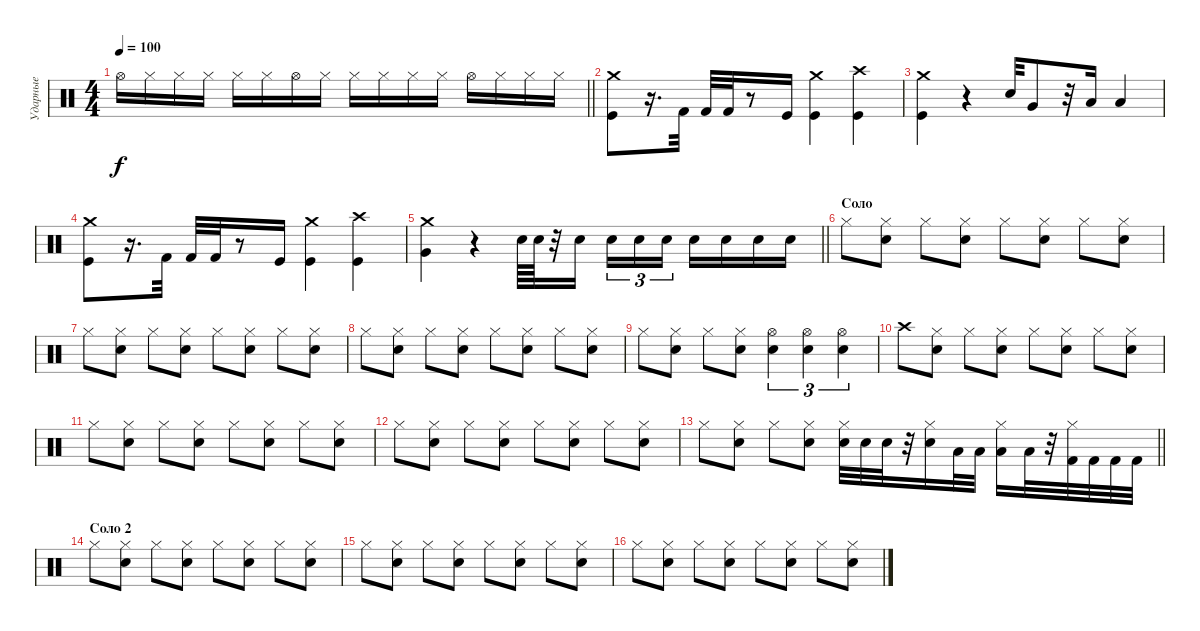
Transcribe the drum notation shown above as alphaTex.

\track ("Ударные" "Ударные") {instrument percussion}
\staff {score}
\articulation defaults
\ts (4 4)
\tempo 100
\clef neutral
\barLineRight lightlight
\ks c "Hi-Hat (open)".16{dy f} "Hi-Hat (closed)".16 "Hi-Hat (closed)".16 "Hi-Hat (closed)".16 "Hi-Hat (closed)".16 "Hi-Hat (closed)".16 "Hi-Hat (open)".16 "Hi-Hat (closed)".16 "Hi-Hat (closed)".16 "Hi-Hat (closed)".16 "Hi-Hat (closed)".16 "Hi-Hat (closed)".16 "Hi-Hat (open)".16 "Hi-Hat (closed)".16 "Hi-Hat (closed)".16 "Hi-Hat (closed)".16
|
("Kick (hit)" "Crash medium (hit)").8 r.16{d} "Kick (hit) 2".32 "Kick (hit) 2".32 "Kick (hit) 2".32 r.8 "Kick (hit)".16 ("Kick (hit)" "Crash medium (hit)").4 ("Kick (hit)" "Crash high (hit)").4 |
("Kick (hit)" "Crash medium (hit)").4 r.4 "Snare (hit) 2".32 "Very Low Tom (hit)".8 r.32 "Low Tom (hit)".16 "Low Floor Tom (hit)".4 |
("Kick (hit)" "Crash medium (hit)").8 r.16{d} "Kick (hit) 2".32 "Kick (hit) 2".32 "Kick (hit) 2".32 r.8 "Kick (hit)".16 ("Kick (hit)" "Crash medium (hit)").4 ("Kick (hit)" "Crash high (hit)").4 |
\barLineRight lightlight
("Crash medium (hit)" "Very Low Tom (hit)").4 r.4 "Electric Snare (hit)".64 "Electric Snare (hit)".64 r.32 "Electric Snare (hit)".16{beam splitsecondary} "Electric Snare (hit)".16{tu (3 2)} "Electric Snare (hit)".16{tu (3 2)} "Electric Snare (hit)".16{tu (3 2)} "Electric Snare (hit)".16 "Electric Snare (hit)".16 "Electric Snare (hit)".16 "Electric Snare (hit)".16 |
\section ("" "Соло")
"Hi-Hat (closed)".8 ("Hi-Hat (closed)" "Snare (hit) 2").8 "Hi-Hat (closed)".8 ("Hi-Hat (closed)" "Snare (hit) 2").8 "Hi-Hat (closed)".8 ("Hi-Hat (closed)" "Snare (hit) 2").8 "Hi-Hat (closed)".8 ("Hi-Hat (closed)" "Snare (hit) 2").8 |
"Hi-Hat (closed)".8 ("Hi-Hat (closed)" "Snare (hit) 2").8 "Hi-Hat (closed)".8 ("Hi-Hat (closed)" "Snare (hit) 2").8 "Hi-Hat (closed)".8 ("Hi-Hat (closed)" "Snare (hit) 2").8 "Hi-Hat (closed)".8 ("Hi-Hat (closed)" "Snare (hit) 2").8 |
"Hi-Hat (closed)".8 ("Hi-Hat (closed)" "Snare (hit) 2").8 "Hi-Hat (closed)".8 ("Hi-Hat (closed)" "Snare (hit) 2").8 "Hi-Hat (closed)".8 ("Hi-Hat (closed)" "Snare (hit) 2").8 "Hi-Hat (closed)".8 ("Hi-Hat (closed)" "Snare (hit) 2").8 |
"Hi-Hat (closed)".8 ("Hi-Hat (closed)" "Snare (hit) 2").8 "Hi-Hat (closed)".8 ("Hi-Hat (closed)" "Snare (hit) 2").8 ("Hi-Hat (open)" "Electric Snare (hit)").4{tu (3 2)} ("Hi-Hat (open)" "Electric Snare (hit)").4{tu (3 2)} ("Hi-Hat (open)" "Electric Snare (hit)").4{tu (3 2)} |
"Crash high (hit)".8 ("Hi-Hat (closed)" "Snare (hit) 2").8 "Hi-Hat (closed)".8 ("Hi-Hat (closed)" "Snare (hit) 2").8 "Hi-Hat (closed)".8 ("Hi-Hat (closed)" "Snare (hit) 2").8 "Hi-Hat (closed)".8 ("Hi-Hat (closed)" "Snare (hit) 2").8 |
"Hi-Hat (closed)".8 ("Hi-Hat (closed)" "Snare (hit) 2").8 "Hi-Hat (closed)".8 ("Hi-Hat (closed)" "Snare (hit) 2").8 "Hi-Hat (closed)".8 ("Hi-Hat (closed)" "Snare (hit) 2").8 "Hi-Hat (closed)".8 ("Hi-Hat (closed)" "Snare (hit) 2").8 |
"Hi-Hat (closed)".8 ("Hi-Hat (closed)" "Snare (hit) 2").8 "Hi-Hat (closed)".8 ("Hi-Hat (closed)" "Snare (hit) 2").8 "Hi-Hat (closed)".8 ("Hi-Hat (closed)" "Snare (hit) 2").8 "Hi-Hat (closed)".8 ("Hi-Hat (closed)" "Snare (hit) 2").8 |
\barLineRight lightlight "Hi-Hat (closed)".8
("Hi-Hat (closed)" "Snare (hit) 2").8 "Hi-Hat (closed)".8 ("Hi-Hat (closed)" "Snare (hit) 2").8 ("Hi-Hat (closed)" "Snare (hit) 2").32 "Snare (hit) 2".32 "Snare (hit) 2".32 r.32 ("Hi-Hat (closed)" "Snare (hit) 2").16 "Low Floor Tom (hit)".32 "Low Floor Tom (hit)".32 ("Hi-Hat (closed)" "Low Floor Tom (hit)").16 "Low Floor Tom (hit)".32 r.32 ("Hi-Hat (closed)" "Kick (hit) 2").32 "Kick (hit) 2".32 "Kick (hit) 2".32 "Kick (hit) 2".32 |
\section ("" "Соло 2")
"Hi-Hat (closed)".8 ("Hi-Hat (closed)" "Snare (hit) 2").8 "Hi-Hat (closed)".8 ("Hi-Hat (closed)" "Snare (hit) 2").8 "Hi-Hat (closed)".8 ("Hi-Hat (closed)" "Snare (hit) 2").8 "Hi-Hat (closed)".8 ("Hi-Hat (closed)" "Snare (hit) 2").8 |
"Hi-Hat (closed)".8 ("Hi-Hat (closed)" "Snare (hit) 2").8 "Hi-Hat (closed)".8 ("Hi-Hat (closed)" "Snare (hit) 2").8 "Hi-Hat (closed)".8 ("Hi-Hat (closed)" "Snare (hit) 2").8 "Hi-Hat (closed)".8 ("Hi-Hat (closed)" "Snare (hit) 2").8 |
"Hi-Hat (closed)".8 ("Hi-Hat (closed)" "Snare (hit) 2").8 "Hi-Hat (closed)".8 ("Hi-Hat (closed)" "Snare (hit) 2").8 "Hi-Hat (closed)".8 ("Hi-Hat (closed)" "Snare (hit) 2").8 "Hi-Hat (closed)".8 ("Hi-Hat (closed)" "Snare (hit) 2").8
